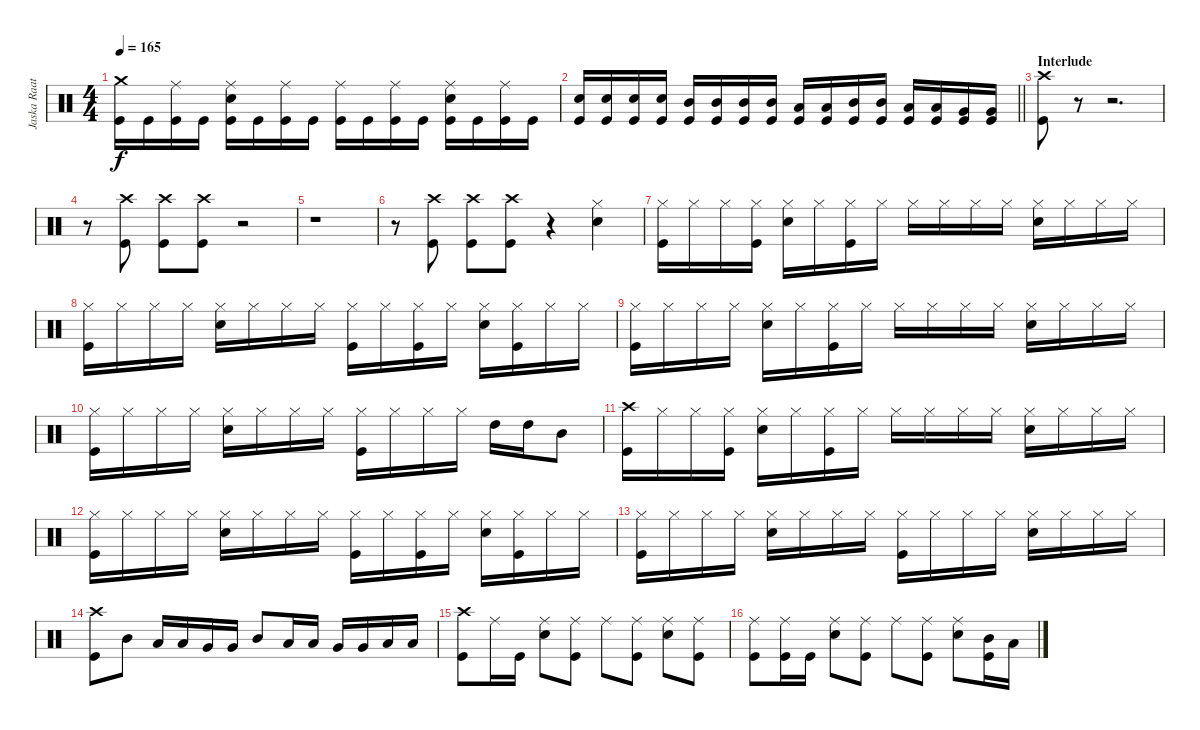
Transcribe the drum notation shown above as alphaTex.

\track ("Jaska Raatikainen" "Jaska Raat") {instrument percussion}
\staff {score}
\articulation defaults
\ts (4 4)
\tempo 165
\clef neutral
\ks c
("Crash medium (hit)" "Kick (hit)").16{dy f} "Kick (hit)".16 ("Ride (middle)" "Kick (hit)").16 "Kick (hit)".16 ("Ride (middle)" "Electric Snare (hit)" "Kick (hit)").16 "Kick (hit)".16 ("Ride (middle)" "Kick (hit)").16 "Kick (hit)".16 ("Ride (middle)" "Kick (hit)").16 "Kick (hit)".16 ("Ride (middle)" "Kick (hit)").16 "Kick (hit)".16 ("Ride (middle)" "Electric Snare (hit)" "Kick (hit)").16 "Kick (hit)".16 ("Ride (middle)" "Kick (hit)").16 "Kick (hit)".16 |
\barLineRight lightlight
("Electric Snare (hit)" "Kick (hit)").16 ("Electric Snare (hit)" "Kick (hit)").16 ("Electric Snare (hit)" "Kick (hit)").16 ("Electric Snare (hit)" "Kick (hit)").16 ("Mid Tom (hit)" "Kick (hit)").16 ("Mid Tom (hit)" "Kick (hit)").16 ("Mid Tom (hit)" "Kick (hit)").16 ("Mid Tom (hit)" "Kick (hit)").16 ("Low Tom (hit)" "Kick (hit)").16 ("Low Tom (hit)" "Kick (hit)").16 ("Mid Tom (hit)" "Kick (hit)").16 ("Mid Tom (hit)" "Kick (hit)").16 ("Low Tom (hit)" "Kick (hit)").16 ("Low Tom (hit)" "Kick (hit)").16 ("Very Low Tom (hit)" "Kick (hit)").16 ("Very Low Tom (hit)" "Kick (hit)").16 |
\section ("" "Interlude")
("Crash high (hit)" "Kick (hit)").8 r.8 r.2{d} |
r.8 ("Crash high (hit)" "Kick (hit)").8 ("Crash high (hit)" "Kick (hit)").8 ("Crash high (hit)" "Kick (hit)").8 r.2 |
r.1 |
r.8 ("Crash high (hit)" "Kick (hit)").8 ("Crash high (hit)" "Kick (hit)").8 ("Crash high (hit)" "Kick (hit)").8 r.4 ("Hi-Hat (closed)" "Electric Snare (hit)").4 |
("Hi-Hat (closed)" "Kick (hit)").16 "Hi-Hat (closed)".16 "Hi-Hat (closed)".16 ("Hi-Hat (closed)" "Kick (hit)").16 ("Hi-Hat (closed)" "Electric Snare (hit)").16 "Hi-Hat (closed)".16 ("Hi-Hat (closed)" "Kick (hit)").16 "Hi-Hat (closed)".16 "Hi-Hat (closed)".16 "Hi-Hat (closed)".16 "Hi-Hat (closed)".16 "Hi-Hat (closed)".16 ("Hi-Hat (closed)" "Electric Snare (hit)").16 "Hi-Hat (closed)".16 "Hi-Hat (closed)".16 "Hi-Hat (closed)".16 |
("Hi-Hat (closed)" "Kick (hit)").16 "Hi-Hat (closed)".16 "Hi-Hat (closed)".16 "Hi-Hat (closed)".16 ("Hi-Hat (closed)" "Electric Snare (hit)").16 "Hi-Hat (closed)".16 "Hi-Hat (closed)".16 "Hi-Hat (closed)".16 ("Hi-Hat (closed)" "Kick (hit)").16 "Hi-Hat (closed)".16 ("Hi-Hat (closed)" "Kick (hit)").16 "Hi-Hat (closed)".16 ("Hi-Hat (closed)" "Electric Snare (hit)").16 ("Hi-Hat (closed)" "Kick (hit)").16 "Hi-Hat (closed)".16 "Hi-Hat (closed)".16 |
("Hi-Hat (closed)" "Kick (hit)").16 "Hi-Hat (closed)".16 "Hi-Hat (closed)".16 "Hi-Hat (closed)".16 ("Hi-Hat (closed)" "Electric Snare (hit)").16 "Hi-Hat (closed)".16 ("Hi-Hat (closed)" "Kick (hit)").16 "Hi-Hat (closed)".16 "Hi-Hat (closed)".16 "Hi-Hat (closed)".16 "Hi-Hat (closed)".16 "Hi-Hat (closed)".16 ("Hi-Hat (closed)" "Electric Snare (hit)").16 "Hi-Hat (closed)".16 "Hi-Hat (closed)".16 "Hi-Hat (closed)".16 |
("Hi-Hat (closed)" "Kick (hit)").16 "Hi-Hat (closed)".16 "Hi-Hat (closed)".16 "Hi-Hat (closed)".16 ("Hi-Hat (closed)" "Electric Snare (hit)").16 "Hi-Hat (closed)".16 "Hi-Hat (closed)".16 "Hi-Hat (closed)".16 ("Hi-Hat (closed)" "Kick (hit)").16 "Hi-Hat (closed)".16 "Hi-Hat (closed)".16 "Hi-Hat (closed)".16 "High Tom (hit)".16 "High Tom (hit)".16 "Mid Tom (hit)".8 |
("Crash high (hit)" "Kick (hit)").16 "Hi-Hat (closed)".16 "Hi-Hat (closed)".16 ("Hi-Hat (closed)" "Kick (hit)").16 ("Hi-Hat (closed)" "Electric Snare (hit)").16 "Hi-Hat (closed)".16 ("Hi-Hat (closed)" "Kick (hit)").16 "Hi-Hat (closed)".16 "Hi-Hat (closed)".16 "Hi-Hat (closed)".16 "Hi-Hat (closed)".16 "Hi-Hat (closed)".16 ("Hi-Hat (closed)" "Electric Snare (hit)").16 "Hi-Hat (closed)".16 "Hi-Hat (closed)".16 "Hi-Hat (closed)".16 |
("Hi-Hat (closed)" "Kick (hit)").16 "Hi-Hat (closed)".16 "Hi-Hat (closed)".16 "Hi-Hat (closed)".16 ("Hi-Hat (closed)" "Electric Snare (hit)").16 "Hi-Hat (closed)".16 "Hi-Hat (closed)".16 "Hi-Hat (closed)".16 ("Hi-Hat (closed)" "Kick (hit)").16 "Hi-Hat (closed)".16 ("Hi-Hat (closed)" "Kick (hit)").16 "Hi-Hat (closed)".16 ("Hi-Hat (closed)" "Electric Snare (hit)").16 ("Hi-Hat (closed)" "Kick (hit)").16 "Hi-Hat (closed)".16 "Hi-Hat (closed)".16 |
("Hi-Hat (closed)" "Kick (hit)").16 "Hi-Hat (closed)".16 "Hi-Hat (closed)".16 "Hi-Hat (closed)".16 ("Hi-Hat (closed)" "Electric Snare (hit)").16 "Hi-Hat (closed)".16 "Hi-Hat (closed)".16 "Hi-Hat (closed)".16 ("Hi-Hat (closed)" "Kick (hit)").16 "Hi-Hat (closed)".16 "Hi-Hat (closed)".16 "Hi-Hat (closed)".16 ("Hi-Hat (closed)" "Electric Snare (hit)").16 "Hi-Hat (closed)".16 "Hi-Hat (closed)".16 "Hi-Hat (closed)".16 |
("Crash high (hit)" "Kick (hit)").8 "Mid Tom (hit)".8 "Low Tom (hit)".16 "Low Tom (hit)".16 "Very Low Tom (hit)".16 "Very Low Tom (hit)".16 "Mid Tom (hit)".8 "Low Tom (hit)".16 "Low Tom (hit)".16 "Very Low Tom (hit)".16 "Very Low Tom (hit)".16 "Low Floor Tom (hit)".16 "Low Floor Tom (hit)".16 |
("Crash high (hit)" "Kick (hit)").8 "Ride (middle)".16 "Kick (hit)".16 ("Ride (middle)" "Electric Snare (hit)").8 ("Ride (middle)" "Kick (hit)").8 "Ride (middle)".8 ("Ride (middle)" "Kick (hit)").8 ("Ride (middle)" "Electric Snare (hit)").8 ("Ride (middle)" "Kick (hit)").8 |
("Ride (middle)" "Kick (hit)").8 ("Ride (middle)" "Kick (hit)").16 "Kick (hit)".16 ("Ride (middle)" "Electric Snare (hit)").8 ("Ride (middle)" "Kick (hit)").8 "Ride (middle)".8 ("Ride (middle)" "Kick (hit)").8 ("Ride (middle)" "Electric Snare (hit)").8 ("Mid Tom (hit)" "Kick (hit)").16 "Low Tom (hit)".16
